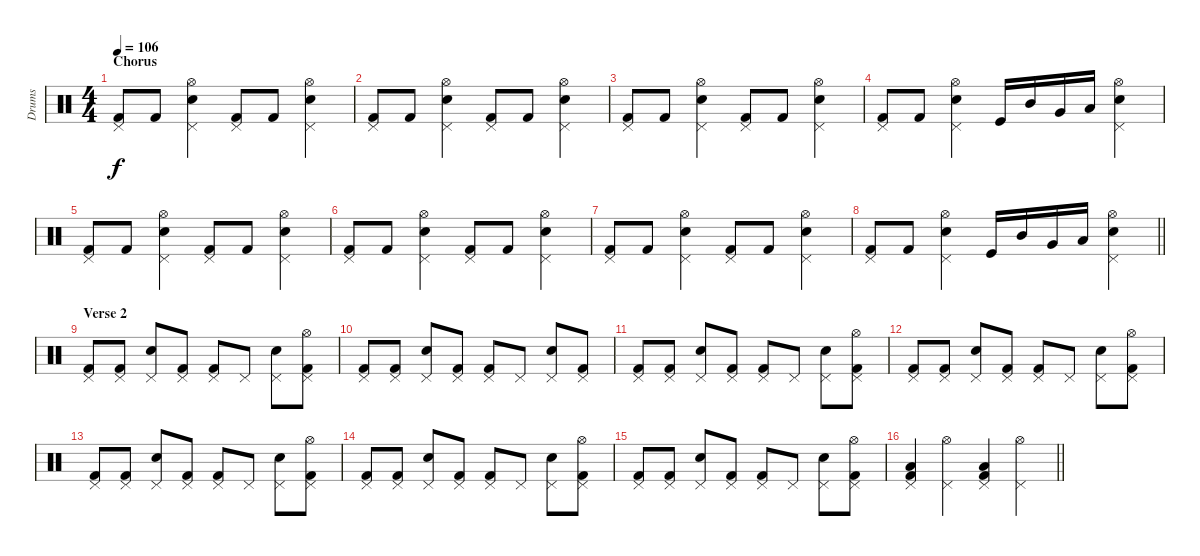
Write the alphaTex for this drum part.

\track ("Drums" "Drums") {instrument percussion}
\staff {score}
\articulation defaults
\ts (4 4)
\section ("" "Chorus")
\tempo 106
\clef neutral
\ks c
("Kick (hit) 2" "Pedal Hi-Hat (hit)").8{dy f} "Kick (hit) 2".8 ("Pedal Hi-Hat (hit)" "Electric Snare (hit)" "Hi-Hat (open)").4 ("Kick (hit) 2" "Pedal Hi-Hat (hit)").8 "Kick (hit) 2".8 ("Pedal Hi-Hat (hit)" "Electric Snare (hit)" "Hi-Hat (open)").4 |
("Kick (hit) 2" "Pedal Hi-Hat (hit)").8 "Kick (hit) 2".8 ("Pedal Hi-Hat (hit)" "Electric Snare (hit)" "Hi-Hat (open)").4 ("Kick (hit) 2" "Pedal Hi-Hat (hit)").8 "Kick (hit) 2".8 ("Pedal Hi-Hat (hit)" "Electric Snare (hit)" "Hi-Hat (open)").4 |
("Kick (hit) 2" "Pedal Hi-Hat (hit)").8 "Kick (hit) 2".8 ("Pedal Hi-Hat (hit)" "Electric Snare (hit)" "Hi-Hat (open)").4 ("Kick (hit) 2" "Pedal Hi-Hat (hit)").8 "Kick (hit) 2".8 ("Pedal Hi-Hat (hit)" "Electric Snare (hit)" "Hi-Hat (open)").4 |
("Kick (hit) 2" "Pedal Hi-Hat (hit)").8 "Kick (hit) 2".8 ("Pedal Hi-Hat (hit)" "Electric Snare (hit)" "Hi-Hat (open)").4 "Kick (hit)".16 "Mid Tom (hit)".16 "Very Low Tom (hit)".16 "Low Tom (hit)".16 ("Pedal Hi-Hat (hit)" "Electric Snare (hit)" "Hi-Hat (open)").4 |
("Kick (hit) 2" "Pedal Hi-Hat (hit)").8 "Kick (hit) 2".8 ("Pedal Hi-Hat (hit)" "Electric Snare (hit)" "Hi-Hat (open)").4 ("Kick (hit) 2" "Pedal Hi-Hat (hit)").8 "Kick (hit) 2".8 ("Pedal Hi-Hat (hit)" "Electric Snare (hit)" "Hi-Hat (open)").4 |
("Kick (hit) 2" "Pedal Hi-Hat (hit)").8 "Kick (hit) 2".8 ("Pedal Hi-Hat (hit)" "Electric Snare (hit)" "Hi-Hat (open)").4 ("Kick (hit) 2" "Pedal Hi-Hat (hit)").8 "Kick (hit) 2".8 ("Pedal Hi-Hat (hit)" "Electric Snare (hit)" "Hi-Hat (open)").4 |
("Kick (hit) 2" "Pedal Hi-Hat (hit)").8 "Kick (hit) 2".8 ("Pedal Hi-Hat (hit)" "Electric Snare (hit)" "Hi-Hat (open)").4 ("Kick (hit) 2" "Pedal Hi-Hat (hit)").8 "Kick (hit) 2".8 ("Pedal Hi-Hat (hit)" "Electric Snare (hit)" "Hi-Hat (open)").4 |
\barLineRight lightlight
("Kick (hit) 2" "Pedal Hi-Hat (hit)").8 "Kick (hit) 2".8 ("Pedal Hi-Hat (hit)" "Electric Snare (hit)" "Hi-Hat (open)").4 "Kick (hit)".16 "Mid Tom (hit)".16 "Very Low Tom (hit)".16 "Low Tom (hit)".16 ("Pedal Hi-Hat (hit)" "Electric Snare (hit)" "Hi-Hat (open)").4 |
\section ("" "Verse 2")
("Pedal Hi-Hat (hit)" "Kick (hit) 2").8 ("Pedal Hi-Hat (hit)" "Kick (hit) 2").8 ("Pedal Hi-Hat (hit)" "Electric Snare (hit)").8 ("Pedal Hi-Hat (hit)" "Kick (hit) 2").8 ("Pedal Hi-Hat (hit)" "Kick (hit) 2").8 "Pedal Hi-Hat (hit)".8 ("Pedal Hi-Hat (hit)" "Electric Snare (hit)").8 ("Pedal Hi-Hat (hit)" "Hi-Hat (open)" "Kick (hit) 2").8 |
("Pedal Hi-Hat (hit)" "Kick (hit) 2").8 ("Pedal Hi-Hat (hit)" "Kick (hit) 2").8 ("Pedal Hi-Hat (hit)" "Electric Snare (hit)").8 ("Pedal Hi-Hat (hit)" "Kick (hit) 2").8 ("Pedal Hi-Hat (hit)" "Kick (hit) 2").8 "Pedal Hi-Hat (hit)".8 ("Pedal Hi-Hat (hit)" "Electric Snare (hit)").8 ("Pedal Hi-Hat (hit)" "Kick (hit) 2").8 |
("Pedal Hi-Hat (hit)" "Kick (hit) 2").8 ("Pedal Hi-Hat (hit)" "Kick (hit) 2").8 ("Pedal Hi-Hat (hit)" "Electric Snare (hit)").8 ("Pedal Hi-Hat (hit)" "Kick (hit) 2").8 ("Pedal Hi-Hat (hit)" "Kick (hit) 2").8 "Pedal Hi-Hat (hit)".8 ("Pedal Hi-Hat (hit)" "Electric Snare (hit)").8 ("Pedal Hi-Hat (hit)" "Hi-Hat (open)" "Kick (hit) 2").8 |
("Pedal Hi-Hat (hit)" "Kick (hit) 2").8 ("Pedal Hi-Hat (hit)" "Kick (hit) 2").8 ("Pedal Hi-Hat (hit)" "Electric Snare (hit)").8 ("Pedal Hi-Hat (hit)" "Kick (hit) 2").8 ("Pedal Hi-Hat (hit)" "Kick (hit) 2").8 "Pedal Hi-Hat (hit)".8 ("Pedal Hi-Hat (hit)" "Electric Snare (hit)").8 ("Pedal Hi-Hat (hit)" "Hi-Hat (open)" "Kick (hit) 2").8 |
("Pedal Hi-Hat (hit)" "Kick (hit) 2").8 ("Pedal Hi-Hat (hit)" "Kick (hit) 2").8 ("Pedal Hi-Hat (hit)" "Electric Snare (hit)").8 ("Pedal Hi-Hat (hit)" "Kick (hit) 2").8 ("Pedal Hi-Hat (hit)" "Kick (hit) 2").8 "Pedal Hi-Hat (hit)".8 ("Pedal Hi-Hat (hit)" "Electric Snare (hit)").8 ("Pedal Hi-Hat (hit)" "Hi-Hat (open)" "Kick (hit) 2").8 |
("Pedal Hi-Hat (hit)" "Kick (hit) 2").8 ("Pedal Hi-Hat (hit)" "Kick (hit) 2").8 ("Pedal Hi-Hat (hit)" "Electric Snare (hit)").8 ("Pedal Hi-Hat (hit)" "Kick (hit) 2").8 ("Pedal Hi-Hat (hit)" "Kick (hit) 2").8 "Pedal Hi-Hat (hit)".8 ("Pedal Hi-Hat (hit)" "Electric Snare (hit)").8 ("Pedal Hi-Hat (hit)" "Hi-Hat (open)" "Kick (hit) 2").8 |
("Pedal Hi-Hat (hit)" "Kick (hit) 2").8 ("Pedal Hi-Hat (hit)" "Kick (hit) 2").8 ("Pedal Hi-Hat (hit)" "Electric Snare (hit)").8 ("Pedal Hi-Hat (hit)" "Kick (hit) 2").8 ("Pedal Hi-Hat (hit)" "Kick (hit) 2").8 "Pedal Hi-Hat (hit)".8 ("Pedal Hi-Hat (hit)" "Electric Snare (hit)").8 ("Pedal Hi-Hat (hit)" "Hi-Hat (open)" "Kick (hit) 2").8 |
\barLineRight lightlight
("Pedal Hi-Hat (hit)" "Kick (hit) 2" "Low Tom (hit)").4 ("Pedal Hi-Hat (hit)" "Hi-Hat (open)").4 ("Pedal Hi-Hat (hit)" "Kick (hit) 2" "Low Tom (hit)").4 ("Pedal Hi-Hat (hit)" "Hi-Hat (open)").4
